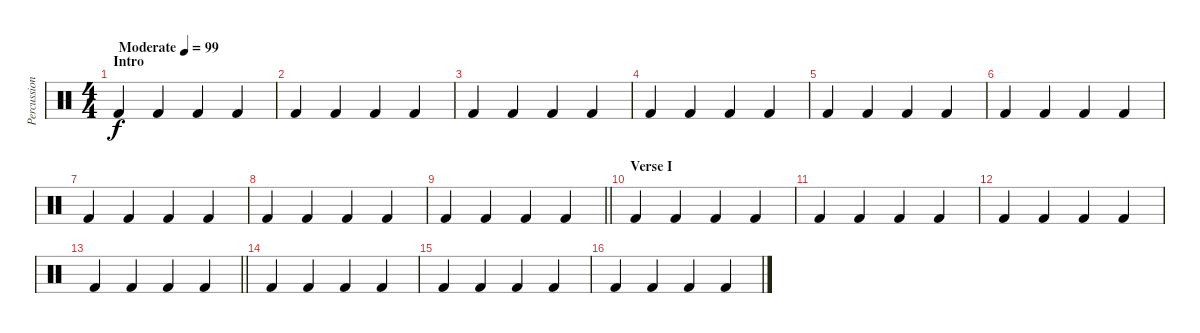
\track ("Percussion" "Percussion") {instrument percussion}
\staff {score}
\articulation defaults
\ts (4 4)
\section ("" "Intro")
\tempo (99 "Moderate")
\clef neutral
\ks c "Kick (hit) 2".4{dy f} "Kick (hit) 2".4 "Kick (hit) 2".4 "Kick (hit) 2".4
|
"Kick (hit) 2".4 "Kick (hit) 2".4 "Kick (hit) 2".4 "Kick (hit) 2".4 |
"Kick (hit) 2".4 "Kick (hit) 2".4 "Kick (hit) 2".4 "Kick (hit) 2".4 |
"Kick (hit) 2".4 "Kick (hit) 2".4 "Kick (hit) 2".4 "Kick (hit) 2".4 |
"Kick (hit) 2".4 "Kick (hit) 2".4 "Kick (hit) 2".4 "Kick (hit) 2".4 |
"Kick (hit) 2".4 "Kick (hit) 2".4 "Kick (hit) 2".4 "Kick (hit) 2".4 |
"Kick (hit) 2".4 "Kick (hit) 2".4 "Kick (hit) 2".4 "Kick (hit) 2".4 |
"Kick (hit) 2".4 "Kick (hit) 2".4 "Kick (hit) 2".4 "Kick (hit) 2".4 |
\barLineRight lightlight "Kick (hit) 2".4 "Kick (hit) 2".4 "Kick (hit) 2".4 "Kick (hit) 2".4
|
\section ("" "Verse I")
"Kick (hit) 2".4 "Kick (hit) 2".4 "Kick (hit) 2".4 "Kick (hit) 2".4 |
"Kick (hit) 2".4 "Kick (hit) 2".4 "Kick (hit) 2".4 "Kick (hit) 2".4 |
"Kick (hit) 2".4 "Kick (hit) 2".4 "Kick (hit) 2".4 "Kick (hit) 2".4 |
\barLineRight lightlight "Kick (hit) 2".4 "Kick (hit) 2".4 "Kick (hit) 2".4 "Kick (hit) 2".4
|
"Kick (hit) 2".4 "Kick (hit) 2".4 "Kick (hit) 2".4 "Kick (hit) 2".4 |
"Kick (hit) 2".4 "Kick (hit) 2".4 "Kick (hit) 2".4 "Kick (hit) 2".4 |
"Kick (hit) 2".4 "Kick (hit) 2".4 "Kick (hit) 2".4 "Kick (hit) 2".4
